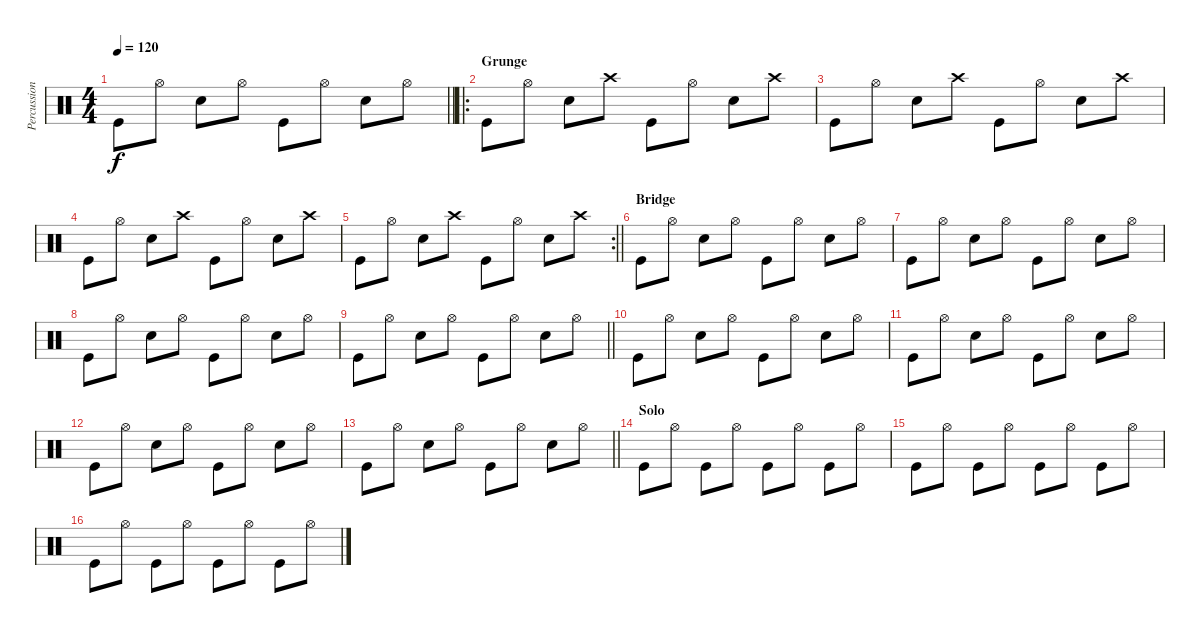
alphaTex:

\track ("Percussion" "Percussion") {instrument percussion}
\staff {score}
\articulation defaults
\ts (4 4)
\tempo 120
\clef neutral
\barLineRight lightlight
\ks c "Kick (hit)".8{dy f} "Hi-Hat (open)".8 "Snare (hit) 2".8 "Hi-Hat (open)".8 "Kick (hit)".8 "Hi-Hat (open)".8 "Snare (hit) 2".8 "Hi-Hat (open)".8
|
\ro
\section ("" "Grunge")
"Kick (hit)".8 "Hi-Hat (open)".8 "Snare (hit) 2".8 "Crash high (hit)".8 "Kick (hit)".8 "Hi-Hat (open)".8 "Snare (hit) 2".8 "Crash high (hit)".8 |
"Kick (hit)".8 "Hi-Hat (open)".8 "Snare (hit) 2".8 "Crash high (hit)".8 "Kick (hit)".8 "Hi-Hat (open)".8 "Snare (hit) 2".8 "Crash high (hit)".8 |
"Kick (hit)".8 "Hi-Hat (open)".8 "Snare (hit) 2".8 "Crash high (hit)".8 "Kick (hit)".8 "Hi-Hat (open)".8 "Snare (hit) 2".8 "Crash high (hit)".8 |
\rc 2
\barLineRight lightlight "Kick (hit)".8 "Hi-Hat (open)".8 "Snare (hit) 2".8 "Crash high (hit)".8 "Kick (hit)".8 "Hi-Hat (open)".8 "Snare (hit) 2".8 "Crash high (hit)".8
|
\section ("" "Bridge")
"Kick (hit)".8 "Hi-Hat (open)".8 "Snare (hit) 2".8 "Hi-Hat (open)".8 "Kick (hit)".8 "Hi-Hat (open)".8 "Snare (hit) 2".8 "Hi-Hat (open)".8 |
"Kick (hit)".8 "Hi-Hat (open)".8 "Snare (hit) 2".8 "Hi-Hat (open)".8 "Kick (hit)".8 "Hi-Hat (open)".8 "Snare (hit) 2".8 "Hi-Hat (open)".8 |
"Kick (hit)".8 "Hi-Hat (open)".8 "Snare (hit) 2".8 "Hi-Hat (open)".8 "Kick (hit)".8 "Hi-Hat (open)".8 "Snare (hit) 2".8 "Hi-Hat (open)".8 |
\barLineRight lightlight "Kick (hit)".8 "Hi-Hat (open)".8 "Snare (hit) 2".8 "Hi-Hat (open)".8 "Kick (hit)".8 "Hi-Hat (open)".8 "Snare (hit) 2".8 "Hi-Hat (open)".8
|
"Kick (hit)".8 "Hi-Hat (open)".8 "Snare (hit) 2".8 "Hi-Hat (open)".8 "Kick (hit)".8 "Hi-Hat (open)".8 "Snare (hit) 2".8 "Hi-Hat (open)".8 |
"Kick (hit)".8 "Hi-Hat (open)".8 "Snare (hit) 2".8 "Hi-Hat (open)".8 "Kick (hit)".8 "Hi-Hat (open)".8 "Snare (hit) 2".8 "Hi-Hat (open)".8 |
"Kick (hit)".8 "Hi-Hat (open)".8 "Snare (hit) 2".8 "Hi-Hat (open)".8 "Kick (hit)".8 "Hi-Hat (open)".8 "Snare (hit) 2".8 "Hi-Hat (open)".8 |
\barLineRight lightlight "Kick (hit)".8 "Hi-Hat (open)".8 "Snare (hit) 2".8 "Hi-Hat (open)".8 "Kick (hit)".8 "Hi-Hat (open)".8 "Snare (hit) 2".8 "Hi-Hat (open)".8
|
\section ("" "Solo")
"Kick (hit)".8 "Hi-Hat (open)".8 "Kick (hit)".8 "Hi-Hat (open)".8 "Kick (hit)".8 "Hi-Hat (open)".8 "Kick (hit)".8 "Hi-Hat (open)".8 |
"Kick (hit)".8 "Hi-Hat (open)".8 "Kick (hit)".8 "Hi-Hat (open)".8 "Kick (hit)".8 "Hi-Hat (open)".8 "Kick (hit)".8 "Hi-Hat (open)".8 |
"Kick (hit)".8 "Hi-Hat (open)".8 "Kick (hit)".8 "Hi-Hat (open)".8 "Kick (hit)".8 "Hi-Hat (open)".8 "Kick (hit)".8 "Hi-Hat (open)".8
